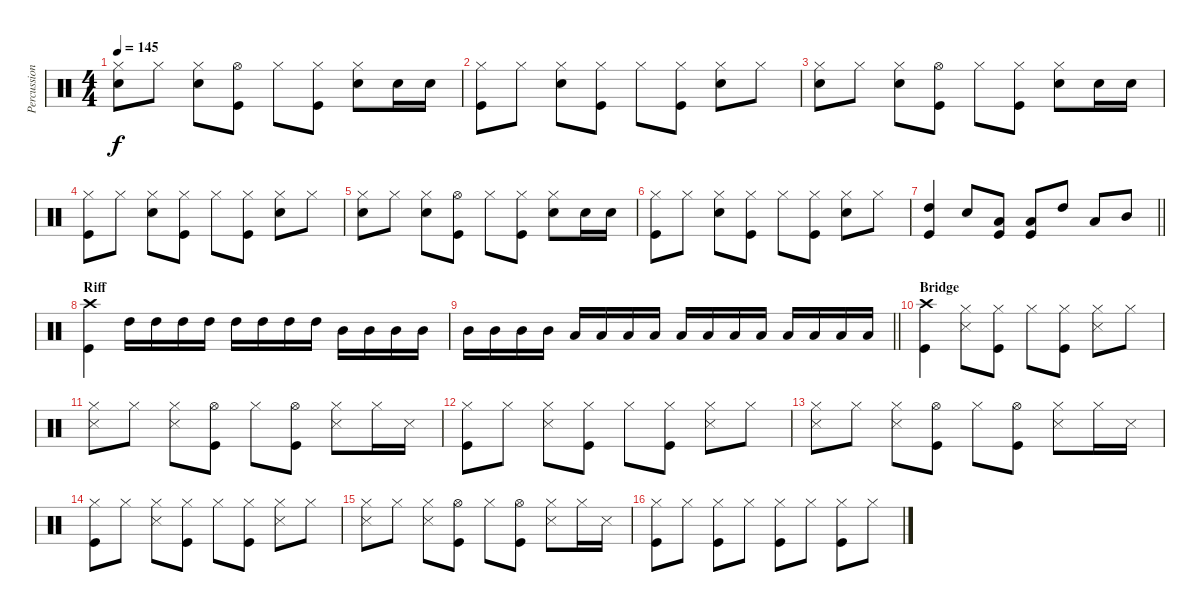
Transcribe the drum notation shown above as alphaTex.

\track ("Percussion" "Percussion") {instrument percussion}
\staff {score}
\articulation defaults
\ts (4 4)
\tempo 145
\clef neutral
\ks c
("Hi-Hat (closed)" "Snare (hit) 2").8{dy f} "Hi-Hat (closed)".8 ("Hi-Hat (closed)" "Snare (hit) 2").8 ("Kick (hit)" "Hi-Hat (open)").8 "Hi-Hat (closed)".8 ("Kick (hit)" "Hi-Hat (closed)").8 ("Hi-Hat (closed)" "Snare (hit) 2").8 "Snare (hit) 2".16 "Snare (hit) 2".16 |
("Kick (hit)" "Hi-Hat (closed)").8 "Hi-Hat (closed)".8 ("Hi-Hat (closed)" "Snare (hit) 2").8 ("Kick (hit)" "Hi-Hat (closed)").8 "Hi-Hat (closed)".8 ("Kick (hit)" "Hi-Hat (closed)").8 ("Hi-Hat (closed)" "Snare (hit) 2").8 "Hi-Hat (closed)".8 |
("Hi-Hat (closed)" "Snare (hit) 2").8 "Hi-Hat (closed)".8 ("Hi-Hat (closed)" "Snare (hit) 2").8 ("Kick (hit)" "Hi-Hat (open)").8 "Hi-Hat (closed)".8 ("Kick (hit)" "Hi-Hat (closed)").8 ("Hi-Hat (closed)" "Snare (hit) 2").8 "Snare (hit) 2".16 "Snare (hit) 2".16 |
("Kick (hit)" "Hi-Hat (closed)").8 "Hi-Hat (closed)".8 ("Hi-Hat (closed)" "Snare (hit) 2").8 ("Kick (hit)" "Hi-Hat (closed)").8 "Hi-Hat (closed)".8 ("Kick (hit)" "Hi-Hat (closed)").8 ("Hi-Hat (closed)" "Snare (hit) 2").8 "Hi-Hat (closed)".8 |
("Hi-Hat (closed)" "Snare (hit) 2").8 "Hi-Hat (closed)".8 ("Hi-Hat (closed)" "Snare (hit) 2").8 ("Kick (hit)" "Hi-Hat (open)").8 "Hi-Hat (closed)".8 ("Kick (hit)" "Hi-Hat (closed)").8 ("Hi-Hat (closed)" "Snare (hit) 2").8 "Snare (hit) 2".16 "Snare (hit) 2".16 |
("Kick (hit)" "Hi-Hat (closed)").8 "Hi-Hat (closed)".8 ("Hi-Hat (closed)" "Snare (hit) 2").8 ("Kick (hit)" "Hi-Hat (closed)").8 "Hi-Hat (closed)".8 ("Kick (hit)" "Hi-Hat (closed)").8 ("Hi-Hat (closed)" "Snare (hit) 2").8 "Hi-Hat (closed)".8 |
\barLineRight lightlight
("Kick (hit)" "High Tom (hit)").4 "Snare (hit) 2".8 ("Low Tom (hit)" "Kick (hit)").8 ("Low Tom (hit)" "Kick (hit)").8 "High Tom (hit)".8 "Low Tom (hit)".8 "Mid Tom (hit)".8 |
\section ("" "Riff")
("Kick (hit)" "Crash high (hit)").4 "High Tom (hit)".16 "High Tom (hit)".16 "High Tom (hit)".16 "High Tom (hit)".16 "High Tom (hit)".16 "High Tom (hit)".16 "High Tom (hit)".16 "High Tom (hit)".16 "Mid Tom (hit)".16 "Mid Tom (hit)".16 "Mid Tom (hit)".16 "Mid Tom (hit)".16 |
\barLineRight lightlight "Mid Tom (hit)".16 "Mid Tom (hit)".16 "Mid Tom (hit)".16 "Mid Tom (hit)".16 "Low Tom (hit)".16 "Low Tom (hit)".16 "Low Tom (hit)".16 "Low Tom (hit)".16 "Low Tom (hit)".16 "Low Tom (hit)".16 "Low Tom (hit)".16 "Low Tom (hit)".16 "Low Tom (hit)".16 "Low Tom (hit)".16 "Low Tom (hit)".16 "Low Tom (hit)".16
|
\section ("" "Bridge")
("Kick (hit)" "Crash high (hit)").4 ("Hi-Hat (closed)" "Snare (side stick) 3").8 ("Kick (hit)" "Hi-Hat (closed)").8 "Hi-Hat (closed)".8 ("Kick (hit)" "Hi-Hat (closed)").8 ("Hi-Hat (closed)" "Snare (side stick) 3").8 "Hi-Hat (closed)".8 |
("Hi-Hat (closed)" "Snare (side stick) 3").8 "Hi-Hat (closed)".8 ("Hi-Hat (closed)" "Snare (side stick) 3").8 ("Kick (hit)" "Hi-Hat (open)").8 "Hi-Hat (closed)".8 ("Kick (hit)" "Hi-Hat (open)").8 ("Hi-Hat (closed)" "Snare (side stick) 3").8 "Hi-Hat (closed)".16 "Snare (side stick) 3".16 |
("Kick (hit)" "Hi-Hat (closed)").8 "Hi-Hat (closed)".8 ("Hi-Hat (closed)" "Snare (side stick) 3").8 ("Kick (hit)" "Hi-Hat (closed)").8 "Hi-Hat (closed)".8 ("Kick (hit)" "Hi-Hat (closed)").8 ("Hi-Hat (closed)" "Snare (side stick) 3").8 "Hi-Hat (closed)".8 |
("Hi-Hat (closed)" "Snare (side stick) 3").8 "Hi-Hat (closed)".8 ("Hi-Hat (closed)" "Snare (side stick) 3").8 ("Kick (hit)" "Hi-Hat (open)").8 "Hi-Hat (closed)".8 ("Kick (hit)" "Hi-Hat (open)").8 ("Hi-Hat (closed)" "Snare (side stick) 3").8 "Hi-Hat (closed)".16 "Snare (side stick) 3".16 |
("Kick (hit)" "Hi-Hat (closed)").8 "Hi-Hat (closed)".8 ("Hi-Hat (closed)" "Snare (side stick) 3").8 ("Kick (hit)" "Hi-Hat (closed)").8 "Hi-Hat (closed)".8 ("Kick (hit)" "Hi-Hat (closed)").8 ("Hi-Hat (closed)" "Snare (side stick) 3").8 "Hi-Hat (closed)".8 |
("Hi-Hat (closed)" "Snare (side stick) 3").8 "Hi-Hat (closed)".8 ("Hi-Hat (closed)" "Snare (side stick) 3").8 ("Kick (hit)" "Hi-Hat (open)").8 "Hi-Hat (closed)".8 ("Kick (hit)" "Hi-Hat (open)").8 ("Hi-Hat (closed)" "Snare (side stick) 3").8 "Hi-Hat (closed)".16 "Snare (side stick) 3".16 |
("Kick (hit)" "Hi-Hat (closed)").8 "Hi-Hat (closed)".8 ("Kick (hit)" "Hi-Hat (closed)").8 "Hi-Hat (closed)".8 ("Kick (hit)" "Hi-Hat (closed)").8 "Hi-Hat (closed)".8 ("Kick (hit)" "Hi-Hat (closed)").8 "Hi-Hat (closed)".8
